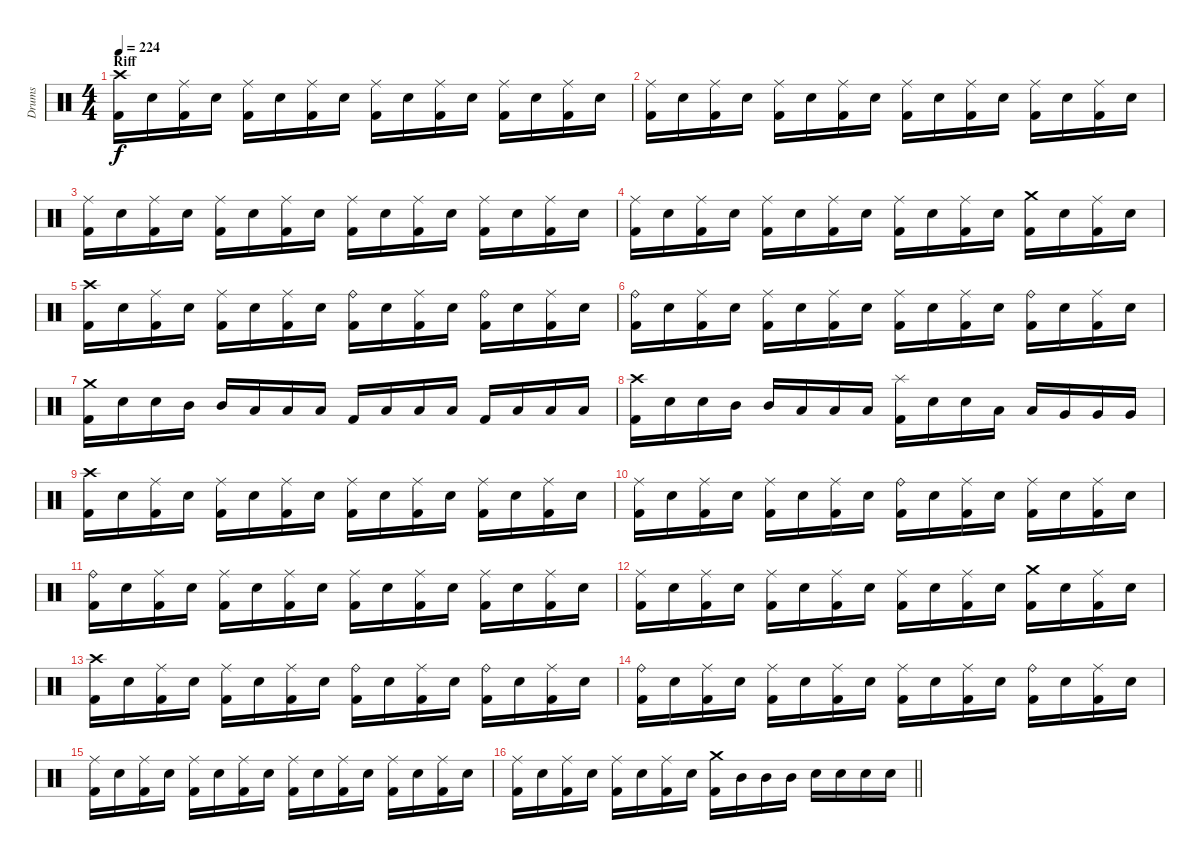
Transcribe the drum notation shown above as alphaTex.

\track ("Drums" "Drums") {instrument percussion}
\staff {score}
\articulation defaults
\ts (4 4)
\section ("" "Riff")
\tempo 224
\clef neutral
\ks c
("Crash high (hit)" "Kick (hit) 2").16{dy f} "Electric Snare (hit)".16 ("Ride (middle)" "Kick (hit) 2").16 "Electric Snare (hit)".16 ("Ride (middle)" "Kick (hit) 2").16 "Electric Snare (hit)".16 ("Ride (middle)" "Kick (hit) 2").16 "Electric Snare (hit)".16 ("Ride (middle)" "Kick (hit) 2").16 "Electric Snare (hit)".16 ("Ride (middle)" "Kick (hit) 2").16 "Electric Snare (hit)".16 ("Ride (middle)" "Kick (hit) 2").16 "Electric Snare (hit)".16 ("Ride (middle)" "Kick (hit) 2").16 "Electric Snare (hit)".16 |
("Ride (middle)" "Kick (hit) 2").16 "Electric Snare (hit)".16 ("Ride (middle)" "Kick (hit) 2").16 "Electric Snare (hit)".16 ("Ride (middle)" "Kick (hit) 2").16 "Electric Snare (hit)".16 ("Ride (middle)" "Kick (hit) 2").16 "Electric Snare (hit)".16 ("Ride (middle)" "Kick (hit) 2").16 "Electric Snare (hit)".16 ("Ride (middle)" "Kick (hit) 2").16 "Electric Snare (hit)".16 ("Ride (middle)" "Kick (hit) 2").16 "Electric Snare (hit)".16 ("Ride (middle)" "Kick (hit) 2").16 "Electric Snare (hit)".16 |
("Ride (middle)" "Kick (hit) 2").16 "Electric Snare (hit)".16 ("Ride (middle)" "Kick (hit) 2").16 "Electric Snare (hit)".16 ("Ride (middle)" "Kick (hit) 2").16 "Electric Snare (hit)".16 ("Ride (middle)" "Kick (hit) 2").16 "Electric Snare (hit)".16 ("Ride (middle)" "Kick (hit) 2").16 "Electric Snare (hit)".16 ("Ride (middle)" "Kick (hit) 2").16 "Electric Snare (hit)".16 ("Ride (middle)" "Kick (hit) 2").16 "Electric Snare (hit)".16 ("Ride (middle)" "Kick (hit) 2").16 "Electric Snare (hit)".16 |
("Ride (middle)" "Kick (hit) 2").16 "Electric Snare (hit)".16 ("Ride (middle)" "Kick (hit) 2").16 "Electric Snare (hit)".16 ("Ride (middle)" "Kick (hit) 2").16 "Electric Snare (hit)".16 ("Ride (middle)" "Kick (hit) 2").16 "Electric Snare (hit)".16 ("Ride (middle)" "Kick (hit) 2").16 "Electric Snare (hit)".16 ("Ride (middle)" "Kick (hit) 2").16 "Electric Snare (hit)".16 ("Crash medium (hit)" "Kick (hit) 2").16 "Electric Snare (hit)".16 ("Ride (middle)" "Kick (hit) 2").16 "Electric Snare (hit)".16 |
("Crash high (hit)" "Kick (hit) 2").16 "Electric Snare (hit)".16 ("Ride (middle)" "Kick (hit) 2").16 "Electric Snare (hit)".16 ("Ride (middle)" "Kick (hit) 2").16 "Electric Snare (hit)".16 ("Ride (middle)" "Kick (hit) 2").16 "Electric Snare (hit)".16 ("Ride (bell)" "Kick (hit) 2").16 "Electric Snare (hit)".16 ("Ride (middle)" "Kick (hit) 2").16 "Electric Snare (hit)".16 ("Ride (bell)" "Kick (hit) 2").16 "Electric Snare (hit)".16 ("Ride (middle)" "Kick (hit) 2").16 "Electric Snare (hit)".16 |
("Ride (bell)" "Kick (hit) 2").16 "Electric Snare (hit)".16 ("Ride (middle)" "Kick (hit) 2").16 "Electric Snare (hit)".16 ("Ride (middle)" "Kick (hit) 2").16 "Electric Snare (hit)".16 ("Ride (middle)" "Kick (hit) 2").16 "Electric Snare (hit)".16 ("Ride (middle)" "Kick (hit) 2").16 "Electric Snare (hit)".16 ("Ride (middle)" "Kick (hit) 2").16 "Electric Snare (hit)".16 ("Ride (bell)" "Kick (hit) 2").16 "Electric Snare (hit)".16 ("Ride (middle)" "Kick (hit) 2").16 "Electric Snare (hit)".16 |
("Crash medium (hit)" "Kick (hit) 2").16 "Electric Snare (hit)".16 "Electric Snare (hit)".16 "Mid Tom (hit)".16 "Mid Tom (hit)".16 "Low Tom (hit)".16 "Low Tom (hit)".16 "Low Tom (hit)".16 "Kick (hit) 2".16 "Low Tom (hit)".16 "Low Tom (hit)".16 "Low Tom (hit)".16 "Kick (hit) 2".16 "Low Tom (hit)".16 "Low Tom (hit)".16 "Low Tom (hit)".16 |
("Crash high (hit)" "Kick (hit) 2").16 "Electric Snare (hit)".16 "Electric Snare (hit)".16 "Mid Tom (hit)".16 "Mid Tom (hit)".16 "Low Tom (hit)".16 "Low Tom (hit)".16 "Low Tom (hit)".16 ("Splash (hit)" "Kick (hit) 2").16 "Electric Snare (hit)".16 "Electric Snare (hit)".16 "Low Tom (hit)".16 "Low Tom (hit)".16 "Very Low Tom (hit)".16 "Very Low Tom (hit)".16 "Very Low Tom (hit)".16 |
("Crash high (hit)" "Kick (hit) 2").16 "Electric Snare (hit)".16 ("Ride (middle)" "Kick (hit) 2").16 "Electric Snare (hit)".16 ("Ride (middle)" "Kick (hit) 2").16 "Electric Snare (hit)".16 ("Ride (middle)" "Kick (hit) 2").16 "Electric Snare (hit)".16 ("Ride (middle)" "Kick (hit) 2").16 "Electric Snare (hit)".16 ("Ride (middle)" "Kick (hit) 2").16 "Electric Snare (hit)".16 ("Ride (middle)" "Kick (hit) 2").16 "Electric Snare (hit)".16 ("Ride (middle)" "Kick (hit) 2").16 "Electric Snare (hit)".16 |
("Ride (middle)" "Kick (hit) 2").16 "Electric Snare (hit)".16 ("Ride (middle)" "Kick (hit) 2").16 "Electric Snare (hit)".16 ("Ride (middle)" "Kick (hit) 2").16 "Electric Snare (hit)".16 ("Ride (middle)" "Kick (hit) 2").16 "Electric Snare (hit)".16 ("Ride (bell)" "Kick (hit) 2").16 "Electric Snare (hit)".16 ("Ride (middle)" "Kick (hit) 2").16 "Electric Snare (hit)".16 ("Ride (middle)" "Kick (hit) 2").16 "Electric Snare (hit)".16 ("Ride (middle)" "Kick (hit) 2").16 "Electric Snare (hit)".16 |
("Ride (bell)" "Kick (hit) 2").16 "Electric Snare (hit)".16 ("Ride (middle)" "Kick (hit) 2").16 "Electric Snare (hit)".16 ("Ride (middle)" "Kick (hit) 2").16 "Electric Snare (hit)".16 ("Ride (middle)" "Kick (hit) 2").16 "Electric Snare (hit)".16 ("Ride (middle)" "Kick (hit) 2").16 "Electric Snare (hit)".16 ("Ride (middle)" "Kick (hit) 2").16 "Electric Snare (hit)".16 ("Ride (middle)" "Kick (hit) 2").16 "Electric Snare (hit)".16 ("Ride (middle)" "Kick (hit) 2").16 "Electric Snare (hit)".16 |
("Ride (middle)" "Kick (hit) 2").16 "Electric Snare (hit)".16 ("Ride (middle)" "Kick (hit) 2").16 "Electric Snare (hit)".16 ("Ride (middle)" "Kick (hit) 2").16 "Electric Snare (hit)".16 ("Ride (middle)" "Kick (hit) 2").16 "Electric Snare (hit)".16 ("Ride (middle)" "Kick (hit) 2").16 "Electric Snare (hit)".16 ("Ride (middle)" "Kick (hit) 2").16 "Electric Snare (hit)".16 ("Crash medium (hit)" "Kick (hit) 2").16 "Electric Snare (hit)".16 ("Ride (middle)" "Kick (hit) 2").16 "Electric Snare (hit)".16 |
("Crash high (hit)" "Kick (hit) 2").16 "Electric Snare (hit)".16 ("Ride (middle)" "Kick (hit) 2").16 "Electric Snare (hit)".16 ("Ride (middle)" "Kick (hit) 2").16 "Electric Snare (hit)".16 ("Ride (middle)" "Kick (hit) 2").16 "Electric Snare (hit)".16 ("Ride (bell)" "Kick (hit) 2").16 "Electric Snare (hit)".16 ("Ride (middle)" "Kick (hit) 2").16 "Electric Snare (hit)".16 ("Ride (bell)" "Kick (hit) 2").16 "Electric Snare (hit)".16 ("Ride (middle)" "Kick (hit) 2").16 "Electric Snare (hit)".16 |
("Ride (bell)" "Kick (hit) 2").16 "Electric Snare (hit)".16 ("Ride (middle)" "Kick (hit) 2").16 "Electric Snare (hit)".16 ("Ride (middle)" "Kick (hit) 2").16 "Electric Snare (hit)".16 ("Ride (middle)" "Kick (hit) 2").16 "Electric Snare (hit)".16 ("Ride (middle)" "Kick (hit) 2").16 "Electric Snare (hit)".16 ("Ride (middle)" "Kick (hit) 2").16 "Electric Snare (hit)".16 ("Ride (bell)" "Kick (hit) 2").16 "Electric Snare (hit)".16 ("Ride (middle)" "Kick (hit) 2").16 "Electric Snare (hit)".16 |
("Ride (middle)" "Kick (hit) 2").16 "Electric Snare (hit)".16 ("Ride (middle)" "Kick (hit) 2").16 "Electric Snare (hit)".16 ("Ride (middle)" "Kick (hit) 2").16 "Electric Snare (hit)".16 ("Ride (middle)" "Kick (hit) 2").16 "Electric Snare (hit)".16 ("Ride (middle)" "Kick (hit) 2").16 "Electric Snare (hit)".16 ("Ride (middle)" "Kick (hit) 2").16 "Electric Snare (hit)".16 ("Ride (middle)" "Kick (hit) 2").16 "Electric Snare (hit)".16 ("Ride (middle)" "Kick (hit) 2").16 "Electric Snare (hit)".16 |
\barLineRight lightlight
("Ride (middle)" "Kick (hit) 2").16 "Electric Snare (hit)".16 ("Ride (middle)" "Kick (hit) 2").16 "Electric Snare (hit)".16 ("Ride (middle)" "Kick (hit) 2").16 "Electric Snare (hit)".16 ("Ride (middle)" "Kick (hit) 2").16 "Electric Snare (hit)".16 ("Crash medium (hit)" "Kick (hit) 2").16 "Mid Tom (hit)".16 "Mid Tom (hit)".16 "Mid Tom (hit)".16 "Electric Snare (hit)".16 "Electric Snare (hit)".16 "Electric Snare (hit)".16 "Electric Snare (hit)".16
